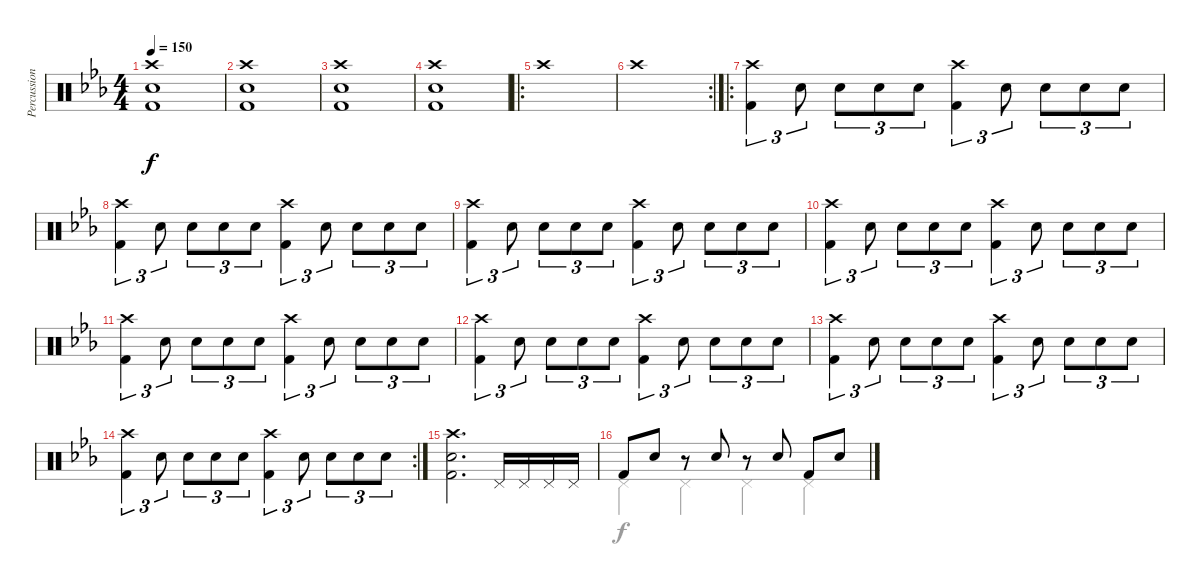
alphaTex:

\track ("Percussion" "Percussion") {instrument percussion}
\staff {score}
\articulation defaults
\voice
\ts (4 4)
\tempo 150
\clef neutral
\ks cminor
("Crash high (hit)" "Snare (hit) 2" "Kick (hit) 2").1{dy f} |
("Crash high (hit)" "Snare (hit) 2" "Kick (hit) 2").1 |
("Crash high (hit)" "Snare (hit) 2" "Kick (hit) 2").1 |
("Crash high (hit)" "Snare (hit) 2" "Kick (hit) 2").1 |
\ro "Crash high (hit)".1
|
\rc 2 "Crash high (hit)".1
|
\ro
("Crash high (hit)" "Kick (hit) 2").4{tu (3 2)} "Snare (hit) 2".8{tu (3 2)} "Snare (hit) 2".8{tu (3 2)} "Snare (hit) 2".8{tu (3 2)} "Snare (hit) 2".8{tu (3 2)} ("Crash high (hit)" "Kick (hit) 2").4{tu (3 2)} "Snare (hit) 2".8{tu (3 2)} "Snare (hit) 2".8{tu (3 2)} "Snare (hit) 2".8{tu (3 2)} "Snare (hit) 2".8{tu (3 2)} |
("Crash high (hit)" "Kick (hit) 2").4{tu (3 2)} "Snare (hit) 2".8{tu (3 2)} "Snare (hit) 2".8{tu (3 2)} "Snare (hit) 2".8{tu (3 2)} "Snare (hit) 2".8{tu (3 2)} ("Crash high (hit)" "Kick (hit) 2").4{tu (3 2)} "Snare (hit) 2".8{tu (3 2)} "Snare (hit) 2".8{tu (3 2)} "Snare (hit) 2".8{tu (3 2)} "Snare (hit) 2".8{tu (3 2)} |
("Crash high (hit)" "Kick (hit) 2").4{tu (3 2)} "Snare (hit) 2".8{tu (3 2)} "Snare (hit) 2".8{tu (3 2)} "Snare (hit) 2".8{tu (3 2)} "Snare (hit) 2".8{tu (3 2)} ("Crash high (hit)" "Kick (hit) 2").4{tu (3 2)} "Snare (hit) 2".8{tu (3 2)} "Snare (hit) 2".8{tu (3 2)} "Snare (hit) 2".8{tu (3 2)} "Snare (hit) 2".8{tu (3 2)} |
("Crash high (hit)" "Kick (hit) 2").4{tu (3 2)} "Snare (hit) 2".8{tu (3 2)} "Snare (hit) 2".8{tu (3 2)} "Snare (hit) 2".8{tu (3 2)} "Snare (hit) 2".8{tu (3 2)} ("Crash high (hit)" "Kick (hit) 2").4{tu (3 2)} "Snare (hit) 2".8{tu (3 2)} "Snare (hit) 2".8{tu (3 2)} "Snare (hit) 2".8{tu (3 2)} "Snare (hit) 2".8{tu (3 2)} |
("Crash high (hit)" "Kick (hit) 2").4{tu (3 2)} "Snare (hit) 2".8{tu (3 2)} "Snare (hit) 2".8{tu (3 2)} "Snare (hit) 2".8{tu (3 2)} "Snare (hit) 2".8{tu (3 2)} ("Crash high (hit)" "Kick (hit) 2").4{tu (3 2)} "Snare (hit) 2".8{tu (3 2)} "Snare (hit) 2".8{tu (3 2)} "Snare (hit) 2".8{tu (3 2)} "Snare (hit) 2".8{tu (3 2)} |
("Crash high (hit)" "Kick (hit) 2").4{tu (3 2)} "Snare (hit) 2".8{tu (3 2)} "Snare (hit) 2".8{tu (3 2)} "Snare (hit) 2".8{tu (3 2)} "Snare (hit) 2".8{tu (3 2)} ("Crash high (hit)" "Kick (hit) 2").4{tu (3 2)} "Snare (hit) 2".8{tu (3 2)} "Snare (hit) 2".8{tu (3 2)} "Snare (hit) 2".8{tu (3 2)} "Snare (hit) 2".8{tu (3 2)} |
("Crash high (hit)" "Kick (hit) 2").4{tu (3 2)} "Snare (hit) 2".8{tu (3 2)} "Snare (hit) 2".8{tu (3 2)} "Snare (hit) 2".8{tu (3 2)} "Snare (hit) 2".8{tu (3 2)} ("Crash high (hit)" "Kick (hit) 2").4{tu (3 2)} "Snare (hit) 2".8{tu (3 2)} "Snare (hit) 2".8{tu (3 2)} "Snare (hit) 2".8{tu (3 2)} "Snare (hit) 2".8{tu (3 2)} |
\rc 2
("Crash high (hit)" "Kick (hit) 2").4{tu (3 2)} "Snare (hit) 2".8{tu (3 2)} "Snare (hit) 2".8{tu (3 2)} "Snare (hit) 2".8{tu (3 2)} "Snare (hit) 2".8{tu (3 2)} ("Crash high (hit)" "Kick (hit) 2").4{tu (3 2)} "Snare (hit) 2".8{tu (3 2)} "Snare (hit) 2".8{tu (3 2)} "Snare (hit) 2".8{tu (3 2)} "Snare (hit) 2".8{tu (3 2)} |
("Crash high (hit)" "Snare (hit) 2" "Kick (hit) 2").2{d} "Pedal Hi-Hat (hit)".16 "Pedal Hi-Hat (hit)".16 "Pedal Hi-Hat (hit)".16 "Pedal Hi-Hat (hit)".16 |
"Kick (hit) 2".8 "Snare (hit) 2".8 r.8 "Snare (hit) 2".8 r.8 "Snare (hit) 2".8 "Kick (hit) 2".8 "Snare (hit) 2".8
\voice
\clef neutral
\ottava regular
\simile none
\ks cminor
|
|
|
|
|
|
|
|
|
|
|
|
|
|
|
"Pedal Hi-Hat (hit)".4 "Pedal Hi-Hat (hit)".4 "Pedal Hi-Hat (hit)".4 "Pedal Hi-Hat (hit)".4
